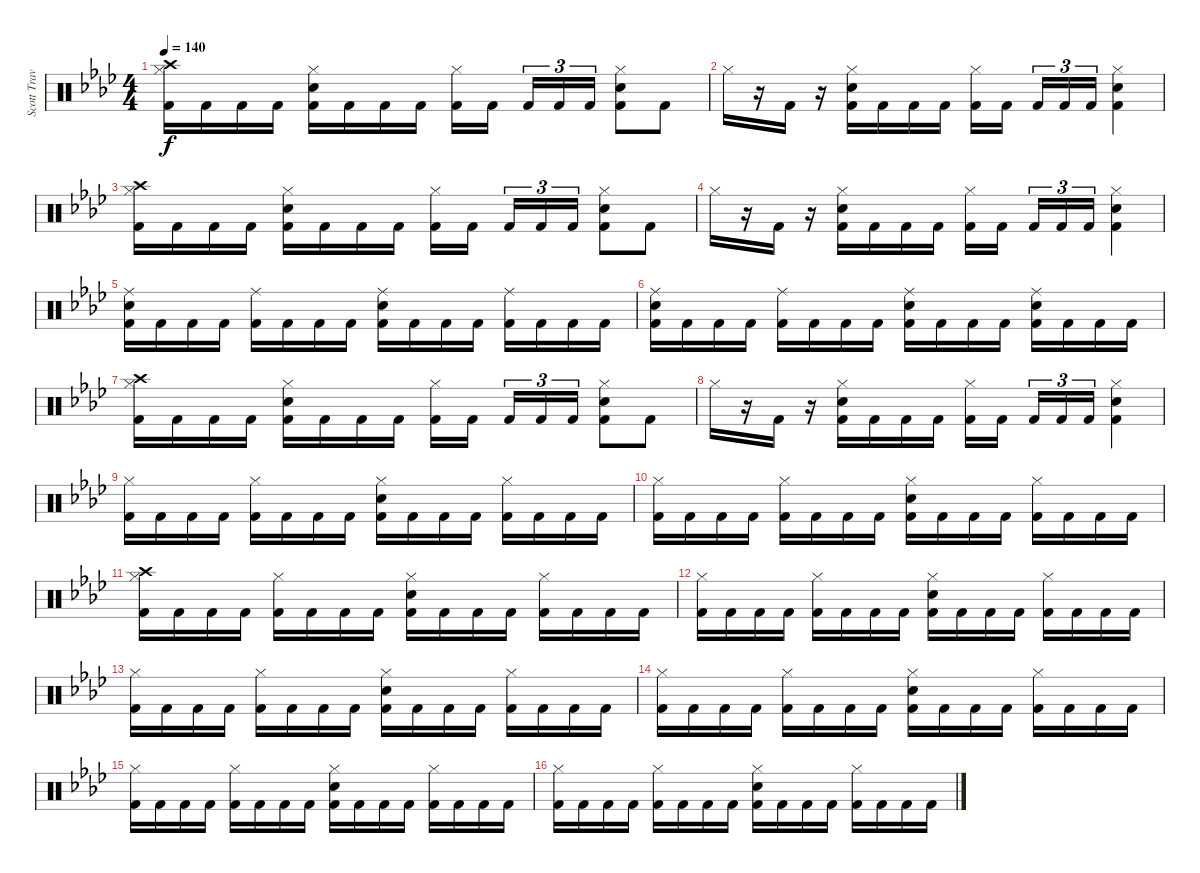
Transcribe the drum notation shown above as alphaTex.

\track ("Scott Travis" "Scott Trav") {instrument percussion}
\staff {score}
\articulation defaults
\ts (4 4)
\tempo 140
\clef neutral
\ks fminor
("Hi-Hat (closed)" "Crash high (hit)" "Kick (hit) 2").16{dy f} "Kick (hit) 2".16 "Kick (hit) 2".16 "Kick (hit) 2".16 ("Hi-Hat (closed)" "Electric Snare (hit)" "Kick (hit) 2").16 "Kick (hit) 2".16 "Kick (hit) 2".16 "Kick (hit) 2".16 ("Hi-Hat (closed)" "Kick (hit) 2").16 "Kick (hit) 2".16{beam splitsecondary} "Kick (hit) 2".16{tu (3 2)} "Kick (hit) 2".16{tu (3 2)} "Kick (hit) 2".16{tu (3 2)} ("Hi-Hat (closed)" "Electric Snare (hit)" "Kick (hit) 2").8 "Kick (hit) 2".8 |
"Hi-Hat (closed)".16 r.16 "Kick (hit) 2".16 r.16 ("Hi-Hat (closed)" "Electric Snare (hit)" "Kick (hit) 2").16 "Kick (hit) 2".16 "Kick (hit) 2".16 "Kick (hit) 2".16 ("Hi-Hat (closed)" "Kick (hit) 2").16 "Kick (hit) 2".16{beam splitsecondary} "Kick (hit) 2".16{tu (3 2)} "Kick (hit) 2".16{tu (3 2)} "Kick (hit) 2".16{tu (3 2)} ("Hi-Hat (closed)" "Electric Snare (hit)" "Kick (hit) 2").4 |
("Hi-Hat (closed)" "Crash high (hit)" "Kick (hit) 2").16 "Kick (hit) 2".16 "Kick (hit) 2".16 "Kick (hit) 2".16 ("Hi-Hat (closed)" "Electric Snare (hit)" "Kick (hit) 2").16 "Kick (hit) 2".16 "Kick (hit) 2".16 "Kick (hit) 2".16 ("Hi-Hat (closed)" "Kick (hit) 2").16 "Kick (hit) 2".16{beam splitsecondary} "Kick (hit) 2".16{tu (3 2)} "Kick (hit) 2".16{tu (3 2)} "Kick (hit) 2".16{tu (3 2)} ("Hi-Hat (closed)" "Electric Snare (hit)" "Kick (hit) 2").8 "Kick (hit) 2".8 |
"Hi-Hat (closed)".16 r.16 "Kick (hit) 2".16 r.16 ("Hi-Hat (closed)" "Electric Snare (hit)" "Kick (hit) 2").16 "Kick (hit) 2".16 "Kick (hit) 2".16 "Kick (hit) 2".16 ("Hi-Hat (closed)" "Kick (hit) 2").16 "Kick (hit) 2".16{beam splitsecondary} "Kick (hit) 2".16{tu (3 2)} "Kick (hit) 2".16{tu (3 2)} "Kick (hit) 2".16{tu (3 2)} ("Hi-Hat (closed)" "Electric Snare (hit)" "Kick (hit) 2").4 |
("Ride (middle)" "Electric Snare (hit)" "Kick (hit) 2").16 "Kick (hit) 2".16 "Kick (hit) 2".16 "Kick (hit) 2".16 ("Ride (middle)" "Kick (hit) 2").16 "Kick (hit) 2".16 "Kick (hit) 2".16 "Kick (hit) 2".16 ("Ride (middle)" "Electric Snare (hit)" "Kick (hit) 2").16 "Kick (hit) 2".16 "Kick (hit) 2".16 "Kick (hit) 2".16 ("Ride (middle)" "Kick (hit) 2").16 "Kick (hit) 2".16 "Kick (hit) 2".16 "Kick (hit) 2".16 |
("Ride (middle)" "Electric Snare (hit)" "Kick (hit) 2").16 "Kick (hit) 2".16 "Kick (hit) 2".16 "Kick (hit) 2".16 ("Ride (middle)" "Kick (hit) 2").16 "Kick (hit) 2".16 "Kick (hit) 2".16 "Kick (hit) 2".16 ("Ride (middle)" "Electric Snare (hit)" "Kick (hit) 2").16 "Kick (hit) 2".16 "Kick (hit) 2".16 "Kick (hit) 2".16 ("Ride (middle)" "Electric Snare (hit)" "Kick (hit) 2").16 "Kick (hit) 2".16 "Kick (hit) 2".16 "Kick (hit) 2".16 |
("Hi-Hat (closed)" "Crash high (hit)" "Kick (hit) 2").16 "Kick (hit) 2".16 "Kick (hit) 2".16 "Kick (hit) 2".16 ("Hi-Hat (closed)" "Electric Snare (hit)" "Kick (hit) 2").16 "Kick (hit) 2".16 "Kick (hit) 2".16 "Kick (hit) 2".16 ("Hi-Hat (closed)" "Kick (hit) 2").16 "Kick (hit) 2".16{beam splitsecondary} "Kick (hit) 2".16{tu (3 2)} "Kick (hit) 2".16{tu (3 2)} "Kick (hit) 2".16{tu (3 2)} ("Hi-Hat (closed)" "Electric Snare (hit)" "Kick (hit) 2").8 "Kick (hit) 2".8 |
"Hi-Hat (closed)".16 r.16 "Kick (hit) 2".16 r.16 ("Hi-Hat (closed)" "Electric Snare (hit)" "Kick (hit) 2").16 "Kick (hit) 2".16 "Kick (hit) 2".16 "Kick (hit) 2".16 ("Hi-Hat (closed)" "Kick (hit) 2").16 "Kick (hit) 2".16{beam splitsecondary} "Kick (hit) 2".16{tu (3 2)} "Kick (hit) 2".16{tu (3 2)} "Kick (hit) 2".16{tu (3 2)} ("Hi-Hat (closed)" "Electric Snare (hit)" "Kick (hit) 2").4 |
("Hi-Hat (closed)" "Kick (hit) 2").16 "Kick (hit) 2".16 "Kick (hit) 2".16 "Kick (hit) 2".16 ("Hi-Hat (closed)" "Kick (hit) 2").16 "Kick (hit) 2".16 "Kick (hit) 2".16 "Kick (hit) 2".16 ("Hi-Hat (closed)" "Electric Snare (hit)" "Kick (hit) 2").16 "Kick (hit) 2".16 "Kick (hit) 2".16 "Kick (hit) 2".16 ("Hi-Hat (closed)" "Kick (hit) 2").16 "Kick (hit) 2".16 "Kick (hit) 2".16 "Kick (hit) 2".16 |
("Hi-Hat (closed)" "Kick (hit) 2").16 "Kick (hit) 2".16 "Kick (hit) 2".16 "Kick (hit) 2".16 ("Hi-Hat (closed)" "Kick (hit) 2").16 "Kick (hit) 2".16 "Kick (hit) 2".16 "Kick (hit) 2".16 ("Hi-Hat (closed)" "Electric Snare (hit)" "Kick (hit) 2").16 "Kick (hit) 2".16 "Kick (hit) 2".16 "Kick (hit) 2".16 ("Hi-Hat (closed)" "Kick (hit) 2").16 "Kick (hit) 2".16 "Kick (hit) 2".16 "Kick (hit) 2".16 |
("Crash high (hit)" "Hi-Hat (closed)" "Kick (hit) 2").16 "Kick (hit) 2".16 "Kick (hit) 2".16 "Kick (hit) 2".16 ("Hi-Hat (closed)" "Kick (hit) 2").16 "Kick (hit) 2".16 "Kick (hit) 2".16 "Kick (hit) 2".16 ("Hi-Hat (closed)" "Electric Snare (hit)" "Kick (hit) 2").16 "Kick (hit) 2".16 "Kick (hit) 2".16 "Kick (hit) 2".16 ("Hi-Hat (closed)" "Kick (hit) 2").16 "Kick (hit) 2".16 "Kick (hit) 2".16 "Kick (hit) 2".16 |
("Hi-Hat (closed)" "Kick (hit) 2").16 "Kick (hit) 2".16 "Kick (hit) 2".16 "Kick (hit) 2".16 ("Hi-Hat (closed)" "Kick (hit) 2").16 "Kick (hit) 2".16 "Kick (hit) 2".16 "Kick (hit) 2".16 ("Hi-Hat (closed)" "Electric Snare (hit)" "Kick (hit) 2").16 "Kick (hit) 2".16 "Kick (hit) 2".16 "Kick (hit) 2".16 ("Hi-Hat (closed)" "Kick (hit) 2").16 "Kick (hit) 2".16 "Kick (hit) 2".16 "Kick (hit) 2".16 |
("Hi-Hat (closed)" "Kick (hit) 2").16 "Kick (hit) 2".16 "Kick (hit) 2".16 "Kick (hit) 2".16 ("Hi-Hat (closed)" "Kick (hit) 2").16 "Kick (hit) 2".16 "Kick (hit) 2".16 "Kick (hit) 2".16 ("Hi-Hat (closed)" "Electric Snare (hit)" "Kick (hit) 2").16 "Kick (hit) 2".16 "Kick (hit) 2".16 "Kick (hit) 2".16 ("Hi-Hat (closed)" "Kick (hit) 2").16 "Kick (hit) 2".16 "Kick (hit) 2".16 "Kick (hit) 2".16 |
("Hi-Hat (closed)" "Kick (hit) 2").16 "Kick (hit) 2".16 "Kick (hit) 2".16 "Kick (hit) 2".16 ("Hi-Hat (closed)" "Kick (hit) 2").16 "Kick (hit) 2".16 "Kick (hit) 2".16 "Kick (hit) 2".16 ("Hi-Hat (closed)" "Electric Snare (hit)" "Kick (hit) 2").16 "Kick (hit) 2".16 "Kick (hit) 2".16 "Kick (hit) 2".16 ("Hi-Hat (closed)" "Kick (hit) 2").16 "Kick (hit) 2".16 "Kick (hit) 2".16 "Kick (hit) 2".16 |
("Hi-Hat (closed)" "Kick (hit) 2").16 "Kick (hit) 2".16 "Kick (hit) 2".16 "Kick (hit) 2".16 ("Hi-Hat (closed)" "Kick (hit) 2").16 "Kick (hit) 2".16 "Kick (hit) 2".16 "Kick (hit) 2".16 ("Hi-Hat (closed)" "Electric Snare (hit)" "Kick (hit) 2").16 "Kick (hit) 2".16 "Kick (hit) 2".16 "Kick (hit) 2".16 ("Hi-Hat (closed)" "Kick (hit) 2").16 "Kick (hit) 2".16 "Kick (hit) 2".16 "Kick (hit) 2".16 |
("Hi-Hat (closed)" "Kick (hit) 2").16 "Kick (hit) 2".16 "Kick (hit) 2".16 "Kick (hit) 2".16 ("Hi-Hat (closed)" "Kick (hit) 2").16 "Kick (hit) 2".16 "Kick (hit) 2".16 "Kick (hit) 2".16 ("Hi-Hat (closed)" "Electric Snare (hit)" "Kick (hit) 2").16 "Kick (hit) 2".16 "Kick (hit) 2".16 "Kick (hit) 2".16 ("Hi-Hat (closed)" "Kick (hit) 2").16 "Kick (hit) 2".16 "Kick (hit) 2".16 "Kick (hit) 2".16
